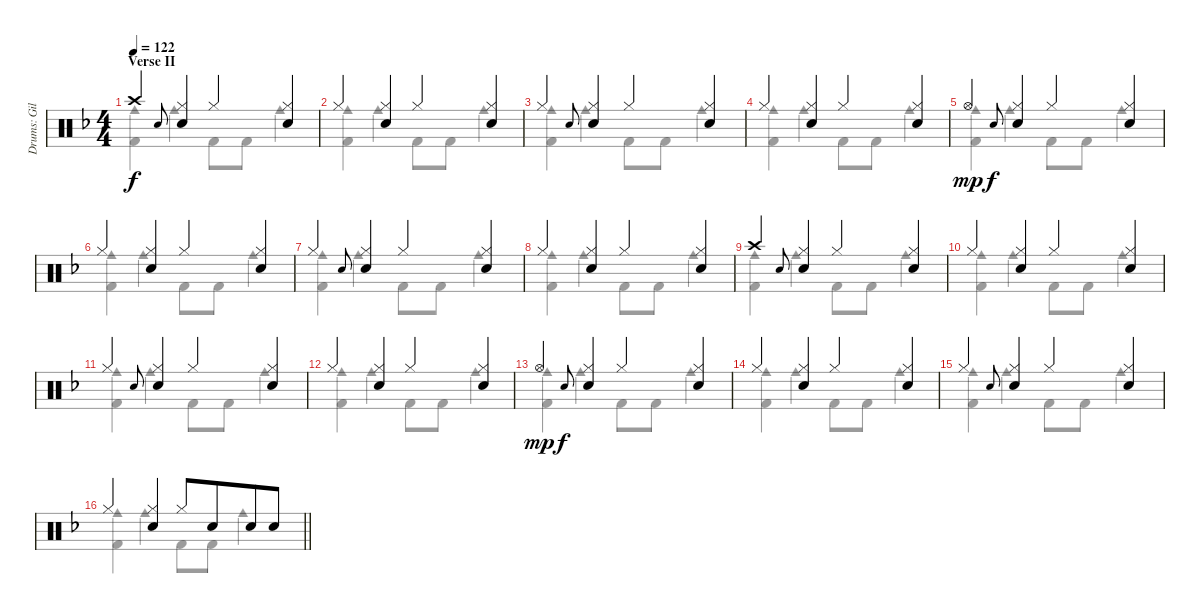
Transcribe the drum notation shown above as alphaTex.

\track ("Drums: Gil" "Drums: Gil") {instrument percussion}
\staff {score}
\articulation defaults
\voice
\ts (4 4)
\section ("" "Verse II")
\tempo 122
\clef neutral
\ks f "Crash high (hit)".4{dy f} "Electric Snare (hit)".8{gr onbeat}
("Hi-Hat (closed)" "Snare (hit) 2").4 "Hi-Hat (closed)".4 ("Hi-Hat (closed)" "Snare (hit) 2").4 |
"Hi-Hat (closed)".4 ("Hi-Hat (closed)" "Snare (hit) 2").4 "Hi-Hat (closed)".4 ("Hi-Hat (closed)" "Snare (hit) 2").4 |
"Hi-Hat (closed)".4 "Electric Snare (hit)".8{gr onbeat} ("Hi-Hat (closed)" "Snare (hit) 2").4 "Hi-Hat (closed)".4 ("Hi-Hat (closed)" "Snare (hit) 2").4 |
"Hi-Hat (closed)".4 ("Hi-Hat (closed)" "Snare (hit) 2").4 "Hi-Hat (closed)".4 ("Hi-Hat (closed)" "Snare (hit) 2").4 |
"Hi-Hat (open)".4{dy mp} "Electric Snare (hit)".8{gr onbeat dy f} ("Hi-Hat (closed)" "Snare (hit) 2").4 "Hi-Hat (closed)".4 ("Hi-Hat (closed)" "Snare (hit) 2").4 |
"Hi-Hat (closed)".4 ("Hi-Hat (closed)" "Snare (hit) 2").4 "Hi-Hat (closed)".4 ("Hi-Hat (closed)" "Snare (hit) 2").4 |
"Hi-Hat (closed)".4 "Electric Snare (hit)".8{gr onbeat} ("Hi-Hat (closed)" "Snare (hit) 2").4 "Hi-Hat (closed)".4 ("Hi-Hat (closed)" "Snare (hit) 2").4 |
"Hi-Hat (closed)".4 ("Hi-Hat (closed)" "Snare (hit) 2").4 "Hi-Hat (closed)".4 ("Hi-Hat (closed)" "Snare (hit) 2").4 |
"Crash high (hit)".4 "Electric Snare (hit)".8{gr onbeat} ("Hi-Hat (closed)" "Snare (hit) 2").4 "Hi-Hat (closed)".4 ("Hi-Hat (closed)" "Snare (hit) 2").4 |
"Hi-Hat (closed)".4 ("Hi-Hat (closed)" "Snare (hit) 2").4 "Hi-Hat (closed)".4 ("Hi-Hat (closed)" "Snare (hit) 2").4 |
"Hi-Hat (closed)".4 "Electric Snare (hit)".8{gr onbeat} ("Hi-Hat (closed)" "Snare (hit) 2").4 "Hi-Hat (closed)".4 ("Hi-Hat (closed)" "Snare (hit) 2").4 |
"Hi-Hat (closed)".4 ("Hi-Hat (closed)" "Snare (hit) 2").4 "Hi-Hat (closed)".4 ("Hi-Hat (closed)" "Snare (hit) 2").4 |
"Hi-Hat (open)".4{dy mp} "Electric Snare (hit)".8{gr onbeat dy f} ("Hi-Hat (closed)" "Snare (hit) 2").4 "Hi-Hat (closed)".4 ("Hi-Hat (closed)" "Snare (hit) 2").4 |
"Hi-Hat (closed)".4 ("Hi-Hat (closed)" "Snare (hit) 2").4 "Hi-Hat (closed)".4 ("Hi-Hat (closed)" "Snare (hit) 2").4 |
"Hi-Hat (closed)".4 "Electric Snare (hit)".8{gr onbeat} ("Hi-Hat (closed)" "Snare (hit) 2").4 "Hi-Hat (closed)".4 ("Hi-Hat (closed)" "Snare (hit) 2").4 |
\barLineRight lightlight "Hi-Hat (closed)".4
("Hi-Hat (closed)" "Snare (hit) 2").4 "Hi-Hat (closed)".8 "Snare (hit) 2".8{beam merge} "Snare (hit) 2".8 "Snare (hit) 2".8
\voice
\clef neutral
\ottava regular
\simile none
\ks f
("Kick (hit) 2" "Cowbell medium (hit)").4{dy f} "Cowbell medium (hit)".4 "Kick (hit) 2".8 "Kick (hit) 2".8 "Cowbell medium (hit)".4 |
("Kick (hit) 2" "Cowbell medium (hit)").4 "Cowbell medium (hit)".4 "Kick (hit) 2".8 "Kick (hit) 2".8 "Cowbell medium (hit)".4 |
("Kick (hit) 2" "Cowbell medium (hit)").4 "Cowbell medium (hit)".4 "Kick (hit) 2".8 "Kick (hit) 2".8 "Cowbell medium (hit)".4 |
("Kick (hit) 2" "Cowbell medium (hit)").4 "Cowbell medium (hit)".4 "Kick (hit) 2".8 "Kick (hit) 2".8 "Cowbell medium (hit)".4 |
("Kick (hit) 2" "Cowbell medium (hit)").4 "Cowbell medium (hit)".4 "Kick (hit) 2".8 "Kick (hit) 2".8 "Cowbell medium (hit)".4 |
("Kick (hit) 2" "Cowbell medium (hit)").4 "Cowbell medium (hit)".4 "Kick (hit) 2".8 "Kick (hit) 2".8 "Cowbell medium (hit)".4 |
("Kick (hit) 2" "Cowbell medium (hit)").4 "Cowbell medium (hit)".4 "Kick (hit) 2".8 "Kick (hit) 2".8 "Cowbell medium (hit)".4 |
("Kick (hit) 2" "Cowbell medium (hit)").4 "Cowbell medium (hit)".4 "Kick (hit) 2".8 "Kick (hit) 2".8 "Cowbell medium (hit)".4 |
("Kick (hit) 2" "Cowbell medium (hit)").4 "Cowbell medium (hit)".4 "Kick (hit) 2".8 "Kick (hit) 2".8 "Cowbell medium (hit)".4 |
("Kick (hit) 2" "Cowbell medium (hit)").4 "Cowbell medium (hit)".4 "Kick (hit) 2".8 "Kick (hit) 2".8 "Cowbell medium (hit)".4 |
("Kick (hit) 2" "Cowbell medium (hit)").4 "Cowbell medium (hit)".4 "Kick (hit) 2".8 "Kick (hit) 2".8 "Cowbell medium (hit)".4 |
("Kick (hit) 2" "Cowbell medium (hit)").4 "Cowbell medium (hit)".4 "Kick (hit) 2".8 "Kick (hit) 2".8 "Cowbell medium (hit)".4 |
("Kick (hit) 2" "Cowbell medium (hit)").4 "Cowbell medium (hit)".4 "Kick (hit) 2".8 "Kick (hit) 2".8 "Cowbell medium (hit)".4 |
("Kick (hit) 2" "Cowbell medium (hit)").4 "Cowbell medium (hit)".4 "Kick (hit) 2".8 "Kick (hit) 2".8 "Cowbell medium (hit)".4 |
("Kick (hit) 2" "Cowbell medium (hit)").4 "Cowbell medium (hit)".4 "Kick (hit) 2".8 "Kick (hit) 2".8 "Cowbell medium (hit)".4 |
\barLineRight lightlight
("Kick (hit) 2" "Cowbell medium (hit)").4 "Cowbell medium (hit)".4 "Kick (hit) 2".8 "Kick (hit) 2".8 "Cowbell medium (hit)".4
